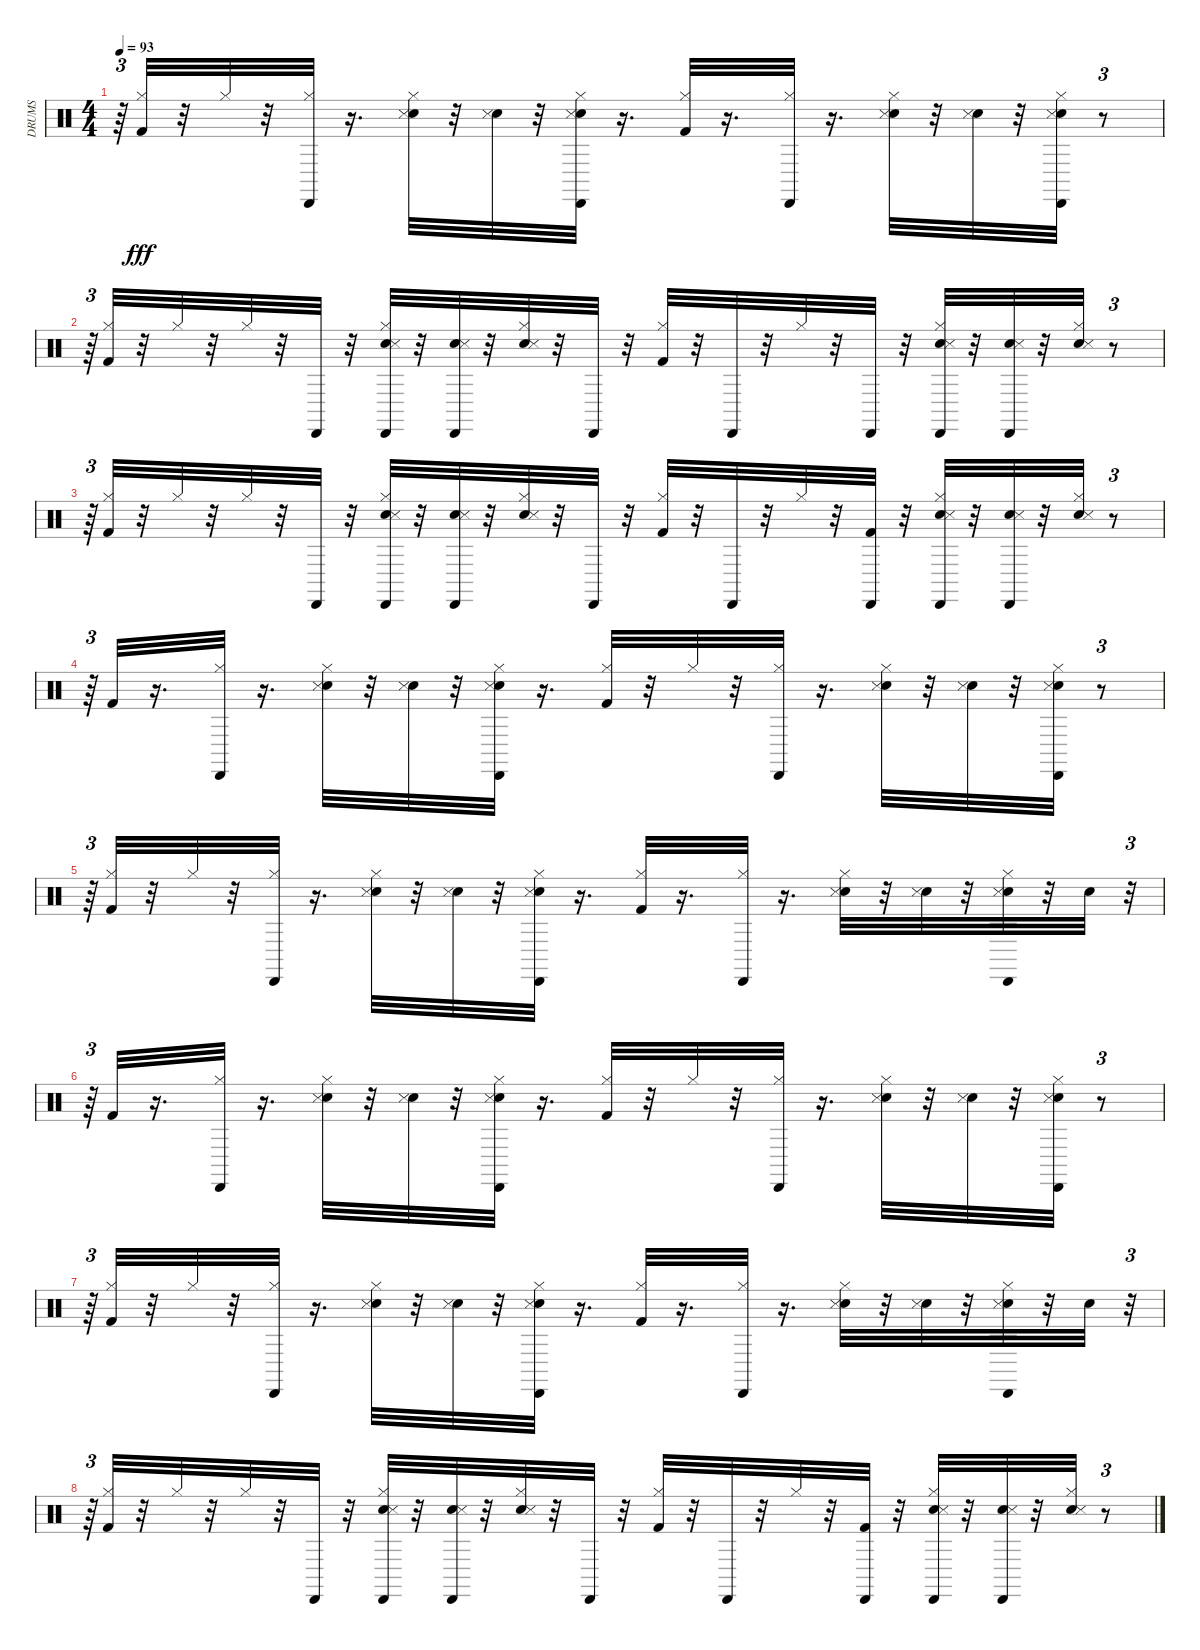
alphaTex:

\track ("DRUMS   " "DRUMS   ") {instrument percussion}
\staff {score}
\articulation defaults
\ts (4 4)
\tempo 93
\clef neutral
\ks c
r.64{tu (3 2) dy fff} ("Kick (hit) 2" "Hi-Hat (closed)").32 r.32 "Hi-Hat (closed)".32 r.32 ("Hi-Hat (closed)" "Cabasa (hit)").32 r.16{d} ("Snare (hit) 2" "Hi-Hat (closed)" "Snare (side stick) 3").32 r.32 ("Snare (hit) 2" "Snare (side stick) 3").32 r.32 ("Snare (hit) 2" "Hi-Hat (closed)" "Snare (side stick) 3" "Cabasa (hit)").32 r.16{d} ("Kick (hit) 2" "Hi-Hat (closed)").32 r.16{d} ("Hi-Hat (closed)" "Cabasa (hit)").32 r.16{d} ("Snare (hit) 2" "Hi-Hat (closed)" "Snare (side stick) 3").32 r.32 ("Snare (hit) 2" "Snare (side stick) 3").32 r.32 ("Snare (hit) 2" "Hi-Hat (closed)" "Snare (side stick) 3" "Cabasa (hit)").32 r.8{tu (3 2)} |
r.64{tu (3 2)} ("Kick (hit) 2" "Hi-Hat (closed)").32 r.32 "Hi-Hat (closed)".32 r.32 "Hi-Hat (closed)".32 r.32 "Cabasa (hit)".32 r.32 ("Snare (hit) 2" "Hi-Hat (closed)" "Snare (side stick) 3" "Cabasa (hit)").32 r.32 ("Snare (hit) 2" "Snare (side stick) 3" "Cabasa (hit)").32 r.32 ("Snare (hit) 2" "Hi-Hat (closed)" "Snare (side stick) 3").32 r.32 "Cabasa (hit)".32 r.32 ("Kick (hit) 2" "Hi-Hat (closed)").32 r.32 "Cabasa (hit)".32 r.32 "Hi-Hat (closed)".32 r.32 "Cabasa (hit)".32 r.32 ("Snare (hit) 2" "Hi-Hat (closed)" "Snare (side stick) 3" "Cabasa (hit)").32 r.32 ("Snare (hit) 2" "Snare (side stick) 3" "Cabasa (hit)").32 r.32 ("Snare (hit) 2" "Hi-Hat (closed)" "Snare (side stick) 3").32 r.8{tu (3 2)} |
r.64{tu (3 2)} ("Kick (hit) 2" "Hi-Hat (closed)").32 r.32 "Hi-Hat (closed)".32 r.32 "Hi-Hat (closed)".32 r.32 "Cabasa (hit)".32 r.32 ("Snare (hit) 2" "Hi-Hat (closed)" "Snare (side stick) 3" "Cabasa (hit)").32 r.32 ("Snare (hit) 2" "Snare (side stick) 3" "Cabasa (hit)").32 r.32 ("Snare (hit) 2" "Hi-Hat (closed)" "Snare (side stick) 3").32 r.32 "Cabasa (hit)".32 r.32 ("Kick (hit) 2" "Hi-Hat (closed)").32 r.32 "Cabasa (hit)".32 r.32 "Hi-Hat (closed)".32 r.32 ("Kick (hit) 2" "Cabasa (hit)").32 r.32 ("Snare (hit) 2" "Hi-Hat (closed)" "Snare (side stick) 3" "Cabasa (hit)").32 r.32 ("Snare (hit) 2" "Snare (side stick) 3" "Cabasa (hit)").32 r.32 ("Snare (hit) 2" "Hi-Hat (closed)" "Snare (side stick) 3").32 r.8{tu (3 2)} |
r.64{tu (3 2)} "Kick (hit) 2".32 r.16{d} ("Hi-Hat (closed)" "Cabasa (hit)").32 r.16{d} ("Snare (hit) 2" "Hi-Hat (closed)" "Snare (side stick) 3").32 r.32 ("Snare (hit) 2" "Snare (side stick) 3").32 r.32 ("Snare (hit) 2" "Hi-Hat (closed)" "Snare (side stick) 3" "Cabasa (hit)").32 r.16{d} ("Kick (hit) 2" "Hi-Hat (closed)").32 r.32 "Hi-Hat (closed)".32 r.32 ("Hi-Hat (closed)" "Cabasa (hit)").32 r.16{d} ("Snare (hit) 2" "Hi-Hat (closed)" "Snare (side stick) 3").32 r.32 ("Snare (hit) 2" "Snare (side stick) 3").32 r.32 ("Snare (hit) 2" "Hi-Hat (closed)" "Snare (side stick) 3" "Cabasa (hit)").32 r.8{tu (3 2)} |
r.64{tu (3 2)} ("Kick (hit) 2" "Hi-Hat (closed)").32 r.32 "Hi-Hat (closed)".32 r.32 ("Hi-Hat (closed)" "Cabasa (hit)").32 r.16{d} ("Snare (hit) 2" "Hi-Hat (closed)" "Snare (side stick) 3").32 r.32 ("Snare (hit) 2" "Snare (side stick) 3").32 r.32 ("Snare (hit) 2" "Hi-Hat (closed)" "Snare (side stick) 3" "Cabasa (hit)").32 r.16{d} ("Kick (hit) 2" "Hi-Hat (closed)").32 r.16{d} ("Hi-Hat (closed)" "Cabasa (hit)").32 r.16{d} ("Snare (hit) 2" "Hi-Hat (closed)" "Snare (side stick) 3").32 r.32 ("Snare (hit) 2" "Snare (side stick) 3").32 r.32 ("Snare (hit) 2" "Hi-Hat (closed)" "Snare (side stick) 3" "Cabasa (hit)").32 r.32 "Snare (hit) 2".32 r.32{tu (3 2)} |
r.64{tu (3 2)} "Kick (hit) 2".32 r.16{d} ("Hi-Hat (closed)" "Cabasa (hit)").32 r.16{d} ("Snare (hit) 2" "Hi-Hat (closed)" "Snare (side stick) 3").32 r.32 ("Snare (hit) 2" "Snare (side stick) 3").32 r.32 ("Snare (hit) 2" "Hi-Hat (closed)" "Snare (side stick) 3" "Cabasa (hit)").32 r.16{d} ("Kick (hit) 2" "Hi-Hat (closed)").32 r.32 "Hi-Hat (closed)".32 r.32 ("Hi-Hat (closed)" "Cabasa (hit)").32 r.16{d} ("Snare (hit) 2" "Hi-Hat (closed)" "Snare (side stick) 3").32 r.32 ("Snare (hit) 2" "Snare (side stick) 3").32 r.32 ("Snare (hit) 2" "Hi-Hat (closed)" "Snare (side stick) 3" "Cabasa (hit)").32 r.8{tu (3 2)} |
r.64{tu (3 2)} ("Kick (hit) 2" "Hi-Hat (closed)").32 r.32 "Hi-Hat (closed)".32 r.32 ("Hi-Hat (closed)" "Cabasa (hit)").32 r.16{d} ("Snare (hit) 2" "Hi-Hat (closed)" "Snare (side stick) 3").32 r.32 ("Snare (hit) 2" "Snare (side stick) 3").32 r.32 ("Snare (hit) 2" "Hi-Hat (closed)" "Snare (side stick) 3" "Cabasa (hit)").32 r.16{d} ("Kick (hit) 2" "Hi-Hat (closed)").32 r.16{d} ("Hi-Hat (closed)" "Cabasa (hit)").32 r.16{d} ("Snare (hit) 2" "Hi-Hat (closed)" "Snare (side stick) 3").32 r.32 ("Snare (hit) 2" "Snare (side stick) 3").32 r.32 ("Snare (hit) 2" "Hi-Hat (closed)" "Snare (side stick) 3" "Cabasa (hit)").32 r.32 "Snare (hit) 2".32 r.32{tu (3 2)} |
r.64{tu (3 2)} ("Kick (hit) 2" "Hi-Hat (closed)").32 r.32 "Hi-Hat (closed)".32 r.32 "Hi-Hat (closed)".32 r.32 "Cabasa (hit)".32 r.32 ("Snare (hit) 2" "Hi-Hat (closed)" "Snare (side stick) 3" "Cabasa (hit)").32 r.32 ("Snare (hit) 2" "Snare (side stick) 3" "Cabasa (hit)").32 r.32 ("Snare (hit) 2" "Hi-Hat (closed)" "Snare (side stick) 3").32 r.32 "Cabasa (hit)".32 r.32 ("Kick (hit) 2" "Hi-Hat (closed)").32 r.32 "Cabasa (hit)".32 r.32 "Hi-Hat (closed)".32 r.32 ("Kick (hit) 2" "Cabasa (hit)").32 r.32 ("Snare (hit) 2" "Hi-Hat (closed)" "Snare (side stick) 3" "Cabasa (hit)").32 r.32 ("Snare (hit) 2" "Snare (side stick) 3" "Cabasa (hit)").32 r.32 ("Snare (hit) 2" "Hi-Hat (closed)" "Snare (side stick) 3").32 r.8{tu (3 2)}
